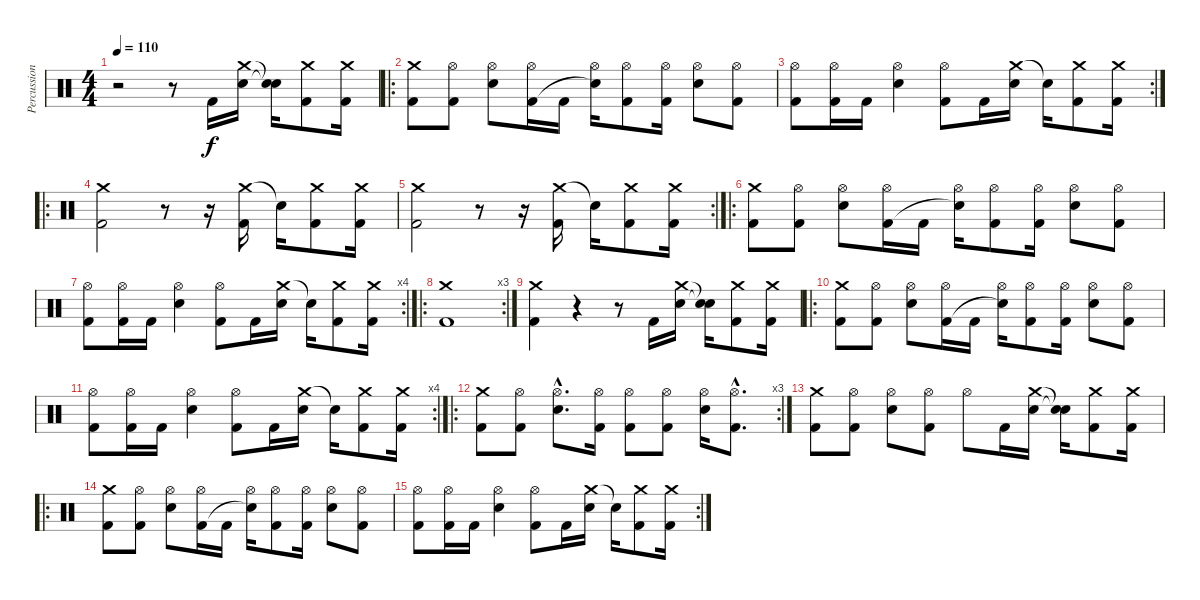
\track ("Percussions" "Percussion") {instrument percussion}
\staff {score}
\articulation defaults
\ts (4 4)
\tempo 110
\clef neutral
\ks c
r.2{dy f} r.8 "Kick (hit) 2".16 ("Crash medium (hit)" "Snare (hit) 2").16 ("Snare (hit)"{t} "Snare (hit)"{t}).16 ("Crash medium (hit)" "Kick (hit) 2").8 ("Crash medium (hit)" "Kick (hit) 2").16 |
\ro
("Crash medium (hit)" "Kick (hit) 2").8 ("Hi-Hat (open)" "Kick (hit) 2").8 ("Hi-Hat (open)" "Snare (hit) 2").8 ("Hi-Hat (open)" "Kick (hit) 2").16 "Kick (hit) 2".16 ("Hi-Hat (open)" "Snare (hit)"{t}).16 ("Hi-Hat (open)" "Kick (hit) 2").8 ("Hi-Hat (open)" "Kick (hit) 2").16 ("Hi-Hat (open)" "Snare (hit) 2").8 ("Hi-Hat (open)" "Kick (hit) 2").8 |
\rc 2
("Hi-Hat (open)" "Kick (hit) 2").8 ("Hi-Hat (open)" "Kick (hit) 2").16 "Kick (hit) 2".16 ("Hi-Hat (open)" "Snare (hit) 2").4 ("Hi-Hat (open)" "Kick (hit) 2").8 "Kick (hit) 2".16 ("Crash medium (hit)" "Snare (hit) 2").16 "Snare (hit)"{t}.16 ("Crash medium (hit)" "Kick (hit) 2").8 ("Crash medium (hit)" "Kick (hit) 2").16 |
\ro
("Crash medium (hit)" "Kick (hit) 2").2 r.8 r.16 ("Crash medium (hit)" "Kick (hit) 2").16 "Snare (hit)"{t}.16 ("Crash medium (hit)" "Kick (hit) 2").8 ("Crash medium (hit)" "Kick (hit) 2").16 |
\rc 2
("Crash medium (hit)" "Kick (hit) 2").2 r.8 r.16 ("Crash medium (hit)" "Kick (hit) 2").16 "Snare (hit)"{t}.16 ("Crash medium (hit)" "Kick (hit) 2").8 ("Crash medium (hit)" "Kick (hit) 2").16 |
\ro
("Crash medium (hit)" "Kick (hit) 2").8 ("Hi-Hat (open)" "Kick (hit) 2").8 ("Hi-Hat (open)" "Snare (hit) 2").8 ("Hi-Hat (open)" "Kick (hit) 2").16 "Kick (hit) 2".16 ("Hi-Hat (open)" "Snare (hit)"{t}).16 ("Hi-Hat (open)" "Kick (hit) 2").8 ("Hi-Hat (open)" "Kick (hit) 2").16 ("Hi-Hat (open)" "Snare (hit) 2").8 ("Hi-Hat (open)" "Kick (hit) 2").8 |
\rc 4
("Hi-Hat (open)" "Kick (hit) 2").8 ("Hi-Hat (open)" "Kick (hit) 2").16 "Kick (hit) 2".16 ("Hi-Hat (open)" "Snare (hit) 2").4 ("Hi-Hat (open)" "Kick (hit) 2").8 "Kick (hit) 2".16 ("Crash medium (hit)" "Snare (hit) 2").16 "Snare (hit)"{t}.16 ("Crash medium (hit)" "Kick (hit) 2").8 ("Crash medium (hit)" "Kick (hit) 2").16 |
\ro
\rc 3
("Crash medium (hit)" "Kick (hit) 2").1 |
("Crash medium (hit)" "Kick (hit) 2").4 r.4 r.8 "Kick (hit) 2".16 ("Crash medium (hit)" "Snare (hit) 2").16 ("Snare (hit)"{t} "Snare (hit)"{t}).16 ("Crash medium (hit)" "Kick (hit) 2").8 ("Crash medium (hit)" "Kick (hit) 2").16 |
\ro
("Crash medium (hit)" "Kick (hit) 2").8 ("Hi-Hat (open)" "Kick (hit) 2").8 ("Hi-Hat (open)" "Snare (hit) 2").8 ("Hi-Hat (open)" "Kick (hit) 2").16 "Kick (hit) 2".16 ("Hi-Hat (open)" "Snare (hit)"{t}).16 ("Hi-Hat (open)" "Kick (hit) 2").8 ("Hi-Hat (open)" "Kick (hit) 2").16 ("Hi-Hat (open)" "Snare (hit) 2").8 ("Hi-Hat (open)" "Kick (hit) 2").8 |
\rc 4
("Hi-Hat (open)" "Kick (hit) 2").8 ("Hi-Hat (open)" "Kick (hit) 2").16 "Kick (hit) 2".16 ("Hi-Hat (open)" "Snare (hit) 2").4 ("Hi-Hat (open)" "Kick (hit) 2").8 "Kick (hit) 2".16 ("Crash medium (hit)" "Snare (hit) 2").16 "Snare (hit)"{t}.16 ("Crash medium (hit)" "Kick (hit) 2").8 ("Crash medium (hit)" "Kick (hit) 2").16 |
\ro
\rc 3
("Crash medium (hit)" "Kick (hit) 2").8 ("Hi-Hat (open)" "Kick (hit) 2").8 ("Hi-Hat (open)"{hac} "Snare (hit) 2"{hac}).8{d} ("Hi-Hat (open)" "Kick (hit) 2").16 ("Hi-Hat (open)" "Kick (hit) 2").8 ("Hi-Hat (open)" "Kick (hit) 2").8 ("Hi-Hat (open)" "Snare (hit) 2").16 ("Hi-Hat (open)"{hac} "Kick (hit) 2"{hac}).8{d} |
("Crash medium (hit)" "Kick (hit) 2").8 ("Hi-Hat (open)" "Kick (hit) 2").8 ("Hi-Hat (open)" "Snare (hit) 2").8 ("Hi-Hat (open)" "Kick (hit) 2").8 "Hi-Hat (open)".8 "Kick (hit) 2".16 ("Crash medium (hit)" "Snare (hit) 2").16 ("Snare (hit)"{t} "Snare (hit)"{t}).16 ("Crash medium (hit)" "Kick (hit) 2").8 ("Crash medium (hit)" "Kick (hit) 2").16 |
\ro
("Crash medium (hit)" "Kick (hit) 2").8 ("Hi-Hat (open)" "Kick (hit) 2").8 ("Hi-Hat (open)" "Snare (hit) 2").8 ("Hi-Hat (open)" "Kick (hit) 2").16 "Kick (hit) 2".16 ("Hi-Hat (open)" "Snare (hit)"{t}).16 ("Hi-Hat (open)" "Kick (hit) 2").8 ("Hi-Hat (open)" "Kick (hit) 2").16 ("Hi-Hat (open)" "Snare (hit) 2").8 ("Hi-Hat (open)" "Kick (hit) 2").8 |
\rc 2
("Hi-Hat (open)" "Kick (hit) 2").8 ("Hi-Hat (open)" "Kick (hit) 2").16 "Kick (hit) 2".16 ("Hi-Hat (open)" "Snare (hit) 2").4 ("Hi-Hat (open)" "Kick (hit) 2").8 "Kick (hit) 2".16 ("Crash medium (hit)" "Snare (hit) 2").16 "Snare (hit)"{t}.16 ("Crash medium (hit)" "Kick (hit) 2").8 ("Crash medium (hit)" "Kick (hit) 2").16
